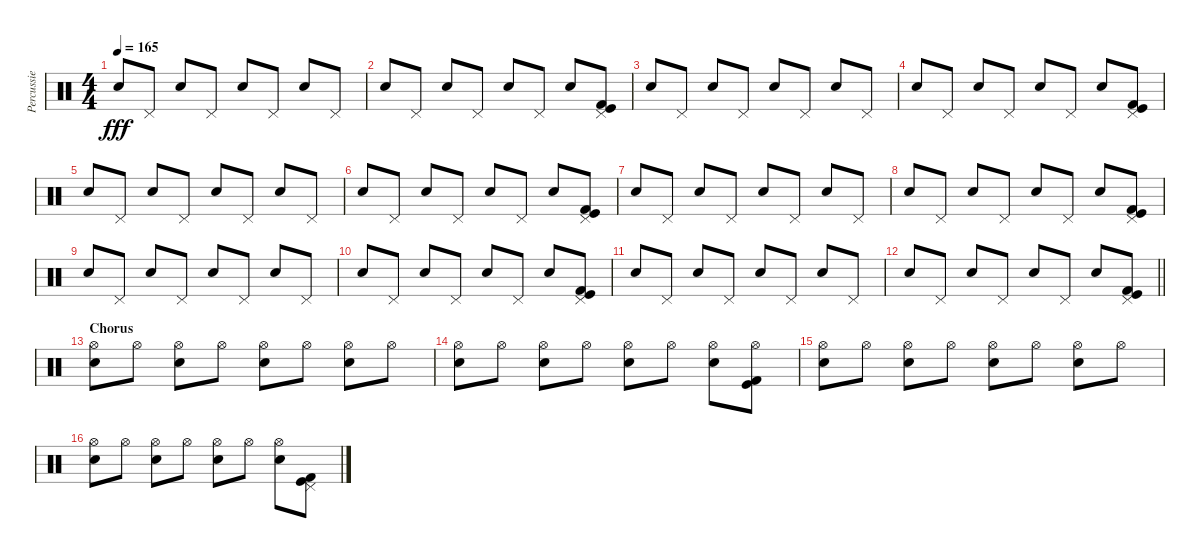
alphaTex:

\track ("Percussie" "Percussie") {instrument percussion}
\staff {score}
\articulation defaults
\ts (4 4)
\tempo 165
\clef neutral
\ks c "Snare (hit) 2".8{dy fff} "Pedal Hi-Hat (hit)".8 "Snare (hit) 2".8 "Pedal Hi-Hat (hit)".8 "Snare (hit) 2".8 "Pedal Hi-Hat (hit)".8 "Snare (hit) 2".8 "Pedal Hi-Hat (hit)".8
|
"Snare (hit) 2".8 "Pedal Hi-Hat (hit)".8 "Snare (hit) 2".8 "Pedal Hi-Hat (hit)".8 "Snare (hit) 2".8 "Pedal Hi-Hat (hit)".8 "Snare (hit) 2".8 ("Pedal Hi-Hat (hit)" "Kick (hit)" "Kick (hit) 2").8 |
"Snare (hit) 2".8 "Pedal Hi-Hat (hit)".8 "Snare (hit) 2".8 "Pedal Hi-Hat (hit)".8 "Snare (hit) 2".8 "Pedal Hi-Hat (hit)".8 "Snare (hit) 2".8 "Pedal Hi-Hat (hit)".8 |
"Snare (hit) 2".8 "Pedal Hi-Hat (hit)".8 "Snare (hit) 2".8 "Pedal Hi-Hat (hit)".8 "Snare (hit) 2".8 "Pedal Hi-Hat (hit)".8 "Snare (hit) 2".8 ("Pedal Hi-Hat (hit)" "Kick (hit)" "Kick (hit) 2").8 |
"Snare (hit) 2".8 "Pedal Hi-Hat (hit)".8 "Snare (hit) 2".8 "Pedal Hi-Hat (hit)".8 "Snare (hit) 2".8 "Pedal Hi-Hat (hit)".8 "Snare (hit) 2".8 "Pedal Hi-Hat (hit)".8 |
"Snare (hit) 2".8 "Pedal Hi-Hat (hit)".8 "Snare (hit) 2".8 "Pedal Hi-Hat (hit)".8 "Snare (hit) 2".8 "Pedal Hi-Hat (hit)".8 "Snare (hit) 2".8 ("Pedal Hi-Hat (hit)" "Kick (hit)" "Kick (hit) 2").8 |
"Snare (hit) 2".8 "Pedal Hi-Hat (hit)".8 "Snare (hit) 2".8 "Pedal Hi-Hat (hit)".8 "Snare (hit) 2".8 "Pedal Hi-Hat (hit)".8 "Snare (hit) 2".8 "Pedal Hi-Hat (hit)".8 |
"Snare (hit) 2".8 "Pedal Hi-Hat (hit)".8 "Snare (hit) 2".8 "Pedal Hi-Hat (hit)".8 "Snare (hit) 2".8 "Pedal Hi-Hat (hit)".8 "Snare (hit) 2".8 ("Pedal Hi-Hat (hit)" "Kick (hit)" "Kick (hit) 2").8 |
"Snare (hit) 2".8 "Pedal Hi-Hat (hit)".8 "Snare (hit) 2".8 "Pedal Hi-Hat (hit)".8 "Snare (hit) 2".8 "Pedal Hi-Hat (hit)".8 "Snare (hit) 2".8 "Pedal Hi-Hat (hit)".8 |
"Snare (hit) 2".8 "Pedal Hi-Hat (hit)".8 "Snare (hit) 2".8 "Pedal Hi-Hat (hit)".8 "Snare (hit) 2".8 "Pedal Hi-Hat (hit)".8 "Snare (hit) 2".8 ("Pedal Hi-Hat (hit)" "Kick (hit)" "Kick (hit) 2").8 |
"Snare (hit) 2".8 "Pedal Hi-Hat (hit)".8 "Snare (hit) 2".8 "Pedal Hi-Hat (hit)".8 "Snare (hit) 2".8 "Pedal Hi-Hat (hit)".8 "Snare (hit) 2".8 "Pedal Hi-Hat (hit)".8 |
\barLineRight lightlight "Snare (hit) 2".8 "Pedal Hi-Hat (hit)".8 "Snare (hit) 2".8 "Pedal Hi-Hat (hit)".8 "Snare (hit) 2".8 "Pedal Hi-Hat (hit)".8 "Snare (hit) 2".8
("Pedal Hi-Hat (hit)" "Kick (hit)" "Kick (hit) 2").8 |
\section ("" "Chorus")
("Hi-Hat (open)" "Snare (hit) 2").8 "Hi-Hat (open)".8 ("Hi-Hat (open)" "Snare (hit) 2").8 "Hi-Hat (open)".8 ("Hi-Hat (open)" "Snare (hit) 2").8 "Hi-Hat (open)".8 ("Hi-Hat (open)" "Snare (hit) 2").8 "Hi-Hat (open)".8 |
("Hi-Hat (open)" "Snare (hit) 2").8 "Hi-Hat (open)".8 ("Hi-Hat (open)" "Snare (hit) 2").8 "Hi-Hat (open)".8 ("Hi-Hat (open)" "Snare (hit) 2").8 "Hi-Hat (open)".8 ("Hi-Hat (open)" "Snare (hit) 2").8 ("Hi-Hat (open)" "Kick (hit)" "Kick (hit) 2").8 |
("Hi-Hat (open)" "Snare (hit) 2").8 "Hi-Hat (open)".8 ("Hi-Hat (open)" "Snare (hit) 2").8 "Hi-Hat (open)".8 ("Hi-Hat (open)" "Snare (hit) 2").8 "Hi-Hat (open)".8 ("Hi-Hat (open)" "Snare (hit) 2").8 "Hi-Hat (open)".8 |
("Hi-Hat (open)" "Snare (hit) 2").8 "Hi-Hat (open)".8 ("Hi-Hat (open)" "Snare (hit) 2").8 "Hi-Hat (open)".8 ("Hi-Hat (open)" "Snare (hit) 2").8 "Hi-Hat (open)".8 ("Hi-Hat (open)" "Snare (hit) 2").8 ("Pedal Hi-Hat (hit)" "Kick (hit)" "Kick (hit) 2").8
